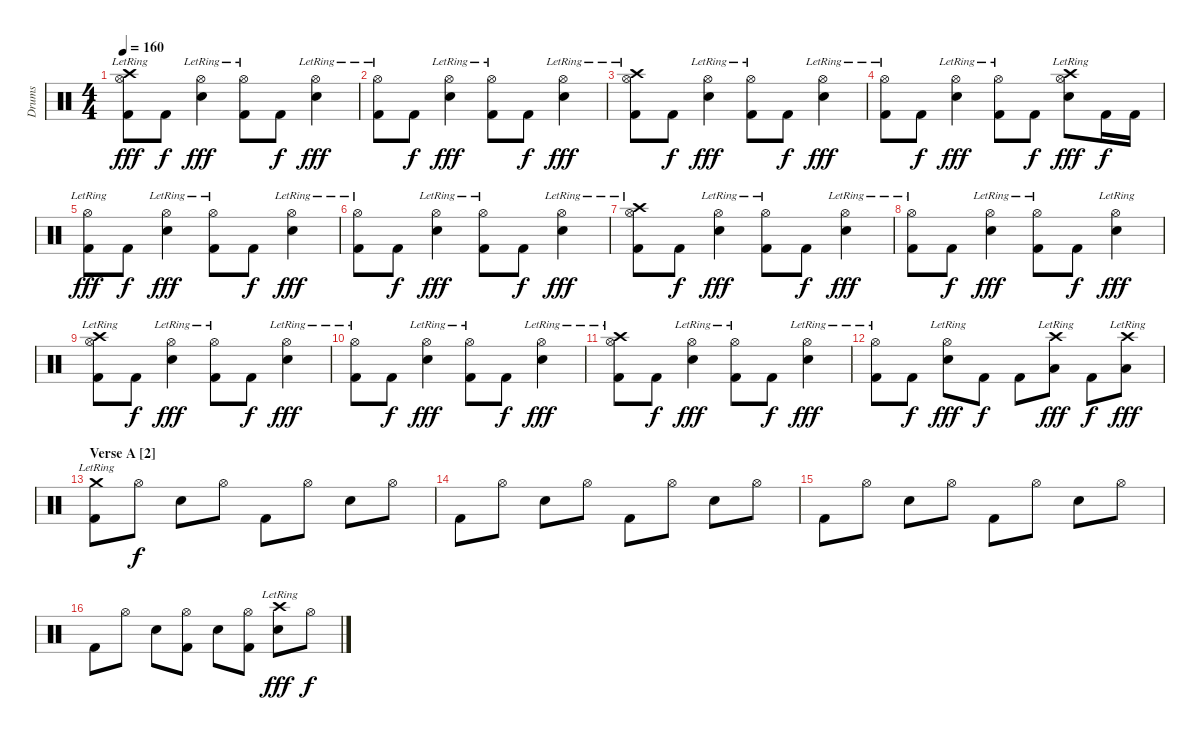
\track ("Drums" "Drums") {instrument percussion}
\staff {score}
\articulation defaults
\ts (4 4)
\tempo 160
\clef neutral
\ks c
("Crash high (hit)" "Hi-Hat (open)"{lr} "Kick (hit) 2").8{dy fff} "Kick (hit) 2".8{dy f} ("Hi-Hat (open)"{lr} "Electric Snare (hit)").4{dy fff} ("Hi-Hat (open)"{lr} "Kick (hit) 2").8 "Kick (hit) 2".8{dy f} ("Hi-Hat (open)"{lr} "Electric Snare (hit)").4{dy fff} |
("Hi-Hat (open)"{lr} "Kick (hit) 2").8 "Kick (hit) 2".8{dy f} ("Hi-Hat (open)"{lr} "Electric Snare (hit)").4{dy fff} ("Hi-Hat (open)"{lr} "Kick (hit) 2").8 "Kick (hit) 2".8{dy f} ("Hi-Hat (open)"{lr} "Electric Snare (hit)").4{dy fff} |
("Crash high (hit)" "Hi-Hat (open)"{lr} "Kick (hit) 2").8 "Kick (hit) 2".8{dy f} ("Hi-Hat (open)"{lr} "Electric Snare (hit)").4{dy fff} ("Hi-Hat (open)"{lr} "Kick (hit) 2").8 "Kick (hit) 2".8{dy f} ("Hi-Hat (open)"{lr} "Electric Snare (hit)").4{dy fff} |
("Hi-Hat (open)"{lr} "Kick (hit) 2").8 "Kick (hit) 2".8{dy f} ("Hi-Hat (open)"{lr} "Electric Snare (hit)").4{dy fff} ("Hi-Hat (open)"{lr} "Kick (hit) 2").8 "Kick (hit) 2".8{dy f} ("Crash high (hit)" "Hi-Hat (open)"{lr} "Electric Snare (hit)").8{dy fff} "Kick (hit) 2".16{dy f} "Kick (hit) 2".16 |
("Hi-Hat (open)"{lr} "Kick (hit) 2").8{dy fff} "Kick (hit) 2".8{dy f} ("Hi-Hat (open)"{lr} "Electric Snare (hit)").4{dy fff} ("Hi-Hat (open)"{lr} "Kick (hit) 2").8 "Kick (hit) 2".8{dy f} ("Hi-Hat (open)"{lr} "Electric Snare (hit)").4{dy fff} |
("Hi-Hat (open)"{lr} "Kick (hit) 2").8 "Kick (hit) 2".8{dy f} ("Hi-Hat (open)"{lr} "Electric Snare (hit)").4{dy fff} ("Hi-Hat (open)"{lr} "Kick (hit) 2").8 "Kick (hit) 2".8{dy f} ("Hi-Hat (open)"{lr} "Electric Snare (hit)").4{dy fff} |
("Crash high (hit)" "Hi-Hat (open)"{lr} "Kick (hit) 2").8 "Kick (hit) 2".8{dy f} ("Hi-Hat (open)"{lr} "Electric Snare (hit)").4{dy fff} ("Hi-Hat (open)"{lr} "Kick (hit) 2").8 "Kick (hit) 2".8{dy f} ("Hi-Hat (open)"{lr} "Electric Snare (hit)").4{dy fff} |
("Hi-Hat (open)"{lr} "Kick (hit) 2").8 "Kick (hit) 2".8{dy f} ("Hi-Hat (open)"{lr} "Electric Snare (hit)").4{dy fff} ("Hi-Hat (open)"{lr} "Kick (hit) 2").8 "Kick (hit) 2".8{dy f} ("Hi-Hat (open)"{lr} "Electric Snare (hit)").4{dy fff} |
("Crash high (hit)" "Hi-Hat (open)"{lr} "Kick (hit) 2").8 "Kick (hit) 2".8{dy f} ("Hi-Hat (open)"{lr} "Electric Snare (hit)").4{dy fff} ("Hi-Hat (open)"{lr} "Kick (hit) 2").8 "Kick (hit) 2".8{dy f} ("Hi-Hat (open)"{lr} "Electric Snare (hit)").4{dy fff} |
("Hi-Hat (open)"{lr} "Kick (hit) 2").8 "Kick (hit) 2".8{dy f} ("Hi-Hat (open)"{lr} "Electric Snare (hit)").4{dy fff} ("Hi-Hat (open)"{lr} "Kick (hit) 2").8 "Kick (hit) 2".8{dy f} ("Hi-Hat (open)"{lr} "Electric Snare (hit)").4{dy fff} |
("Crash high (hit)" "Hi-Hat (open)"{lr} "Kick (hit) 2").8 "Kick (hit) 2".8{dy f} ("Hi-Hat (open)"{lr} "Electric Snare (hit)").4{dy fff} ("Hi-Hat (open)"{lr} "Kick (hit) 2").8 "Kick (hit) 2".8{dy f} ("Hi-Hat (open)"{lr} "Electric Snare (hit)").4{dy fff} |
("Hi-Hat (open)"{lr} "Kick (hit) 2").8 "Kick (hit) 2".8{dy f} ("Hi-Hat (open)"{lr} "Electric Snare (hit)").8{dy fff} "Kick (hit) 2".8{dy f} "Kick (hit) 2".8 ("Crash high (hit)"{lr} "Low Tom (hit)").8{dy fff} "Kick (hit) 2".8{dy f} ("Crash high (hit)"{lr} "Low Tom (hit)").8{dy fff} |
\section ("" "Verse A [2]")
("Crash medium (hit)"{lr} "Kick (hit) 2").8 "Hi-Hat (open)".8{dy f} "Electric Snare (hit)".8 "Hi-Hat (open)".8 "Kick (hit) 2".8 "Hi-Hat (open)".8 "Electric Snare (hit)".8 "Hi-Hat (open)".8 |
"Kick (hit) 2".8 "Hi-Hat (open)".8 "Electric Snare (hit)".8 "Hi-Hat (open)".8 "Kick (hit) 2".8 "Hi-Hat (open)".8 "Electric Snare (hit)".8 "Hi-Hat (open)".8 |
"Kick (hit) 2".8 "Hi-Hat (open)".8 "Electric Snare (hit)".8 "Hi-Hat (open)".8 "Kick (hit) 2".8 "Hi-Hat (open)".8 "Electric Snare (hit)".8 "Hi-Hat (open)".8 |
"Kick (hit) 2".8 "Hi-Hat (open)".8 "Electric Snare (hit)".8 ("Hi-Hat (open)" "Kick (hit) 2").8 "Electric Snare (hit)".8 ("Hi-Hat (open)" "Kick (hit) 2").8 ("Crash high (hit)"{lr} "Electric Snare (hit)").8{dy fff} "Hi-Hat (open)".8{dy f}
